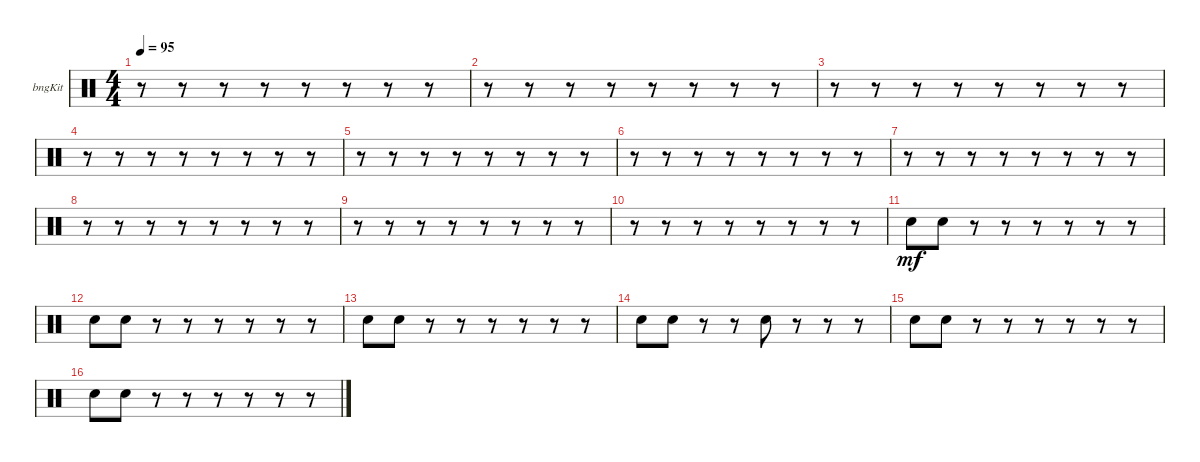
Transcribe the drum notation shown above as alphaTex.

\bracketExtendMode groupsimilarinstruments
\firstSystemTrackNameOrientation horizontal
\otherSystemsTrackNameOrientation horizontal
\track ("Bongos" "bngKit") {instrument percussion}
\staff {score}
\articulation defaults
\ts (4 4)
\tempo 95
\clef neutral
\ks c
r.8{dy fff} r.8 r.8 r.8 r.8 r.8 r.8 r.8 |
r.8 r.8 r.8 r.8 r.8 r.8 r.8 r.8 |
r.8 r.8 r.8 r.8 r.8 r.8 r.8 r.8 |
r.8 r.8 r.8 r.8 r.8 r.8 r.8 r.8 |
r.8 r.8 r.8 r.8 r.8 r.8 r.8 r.8 |
r.8 r.8 r.8 r.8 r.8 r.8 r.8 r.8 |
r.8 r.8 r.8 r.8 r.8 r.8 r.8 r.8 |
r.8 r.8 r.8 r.8 r.8 r.8 r.8 r.8 |
r.8 r.8 r.8 r.8 r.8 r.8 r.8 r.8 |
r.8 r.8 r.8 r.8 r.8 r.8 r.8 r.8 |
"Snare (hit) 2".8{dy mf} "Snare (hit) 2".8 r.8 r.8 r.8 r.8 r.8 r.8 |
"Snare (hit) 2".8 "Snare (hit) 2".8 r.8 r.8 r.8 r.8 r.8 r.8 |
"Snare (hit) 2".8 "Snare (hit) 2".8 r.8 r.8 r.8 r.8 r.8 r.8 |
"Snare (hit) 2".8 "Snare (hit) 2".8 r.8 r.8 "Snare (hit) 2".8 r.8 r.8 r.8 |
"Snare (hit) 2".8 "Snare (hit) 2".8 r.8 r.8 r.8 r.8 r.8 r.8 |
"Snare (hit) 2".8 "Snare (hit) 2".8 r.8 r.8 r.8 r.8 r.8 r.8
